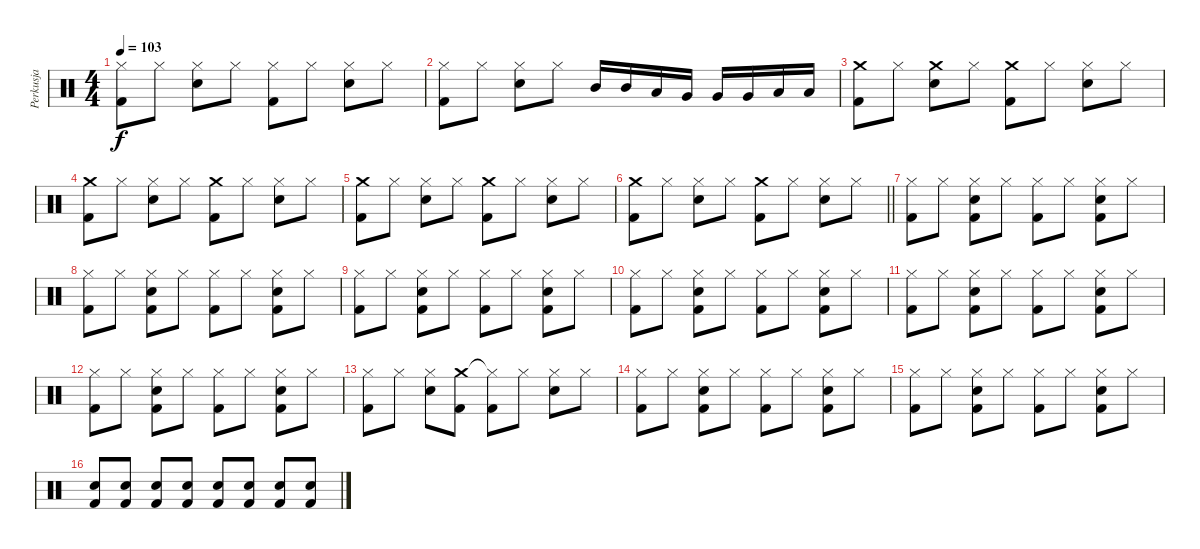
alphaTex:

\track ("Perkusja" "Perkusja") {instrument percussion}
\staff {score}
\articulation defaults
\ts (4 4)
\tempo 103
\clef neutral
\ks c
("Hi-Hat (closed)" "Kick (hit) 2").8{dy f} "Hi-Hat (closed)".8 ("Hi-Hat (closed)" "Snare (hit) 2").8 "Hi-Hat (closed)".8 ("Hi-Hat (closed)" "Kick (hit) 2").8 "Hi-Hat (closed)".8 ("Hi-Hat (closed)" "Snare (hit) 2").8 "Hi-Hat (closed)".8 |
("Hi-Hat (closed)" "Kick (hit) 2").8 "Hi-Hat (closed)".8 ("Hi-Hat (closed)" "Snare (hit) 2").8 "Hi-Hat (closed)".8 "Mid Tom (hit)".16 "Mid Tom (hit)".16 "Low Tom (hit)".16 "Very Low Tom (hit)".16 "Very Low Tom (hit)".16 "Very Low Tom (hit)".16 "Low Floor Tom (hit)".16 "Low Floor Tom (hit)".16 |
("Crash medium (hit)" "Kick (hit) 2").8 "Hi-Hat (closed)".8 ("Crash medium (hit)" "Snare (hit) 2").8 "Hi-Hat (closed)".8 ("Crash medium (hit)" "Kick (hit) 2").8 "Hi-Hat (closed)".8 ("Hi-Hat (closed)" "Snare (hit) 2").8 "Hi-Hat (closed)".8 |
("Crash medium (hit)" "Kick (hit) 2").8 "Hi-Hat (closed)".8 ("Hi-Hat (closed)" "Snare (hit) 2").8 "Hi-Hat (closed)".8 ("Crash medium (hit)" "Kick (hit) 2").8 "Hi-Hat (closed)".8 ("Hi-Hat (closed)" "Snare (hit) 2").8 "Hi-Hat (closed)".8 |
("Crash medium (hit)" "Kick (hit) 2").8 "Hi-Hat (closed)".8 ("Hi-Hat (closed)" "Snare (hit) 2").8 "Hi-Hat (closed)".8 ("Crash medium (hit)" "Kick (hit) 2").8 "Hi-Hat (closed)".8 ("Hi-Hat (closed)" "Snare (hit) 2").8 "Hi-Hat (closed)".8 |
\barLineRight lightlight
("Crash medium (hit)" "Kick (hit) 2").8 "Hi-Hat (closed)".8 ("Hi-Hat (closed)" "Snare (hit) 2").8 "Hi-Hat (closed)".8 ("Crash medium (hit)" "Kick (hit) 2").8 "Hi-Hat (closed)".8 ("Hi-Hat (closed)" "Snare (hit) 2").8 "Hi-Hat (closed)".8 |
("Hi-Hat (closed)" "Kick (hit) 2").8 "Hi-Hat (closed)".8 ("Hi-Hat (closed)" "Snare (hit) 2" "Kick (hit) 2").8 "Hi-Hat (closed)".8 ("Hi-Hat (closed)" "Kick (hit) 2").8 "Hi-Hat (closed)".8 ("Hi-Hat (closed)" "Snare (hit) 2" "Kick (hit) 2").8 "Hi-Hat (closed)".8 |
("Hi-Hat (closed)" "Kick (hit) 2").8 "Hi-Hat (closed)".8 ("Hi-Hat (closed)" "Snare (hit) 2" "Kick (hit) 2").8 "Hi-Hat (closed)".8 ("Hi-Hat (closed)" "Kick (hit) 2").8 "Hi-Hat (closed)".8 ("Hi-Hat (closed)" "Snare (hit) 2" "Kick (hit) 2").8 "Hi-Hat (closed)".8 |
("Hi-Hat (closed)" "Kick (hit) 2").8 "Hi-Hat (closed)".8 ("Hi-Hat (closed)" "Snare (hit) 2" "Kick (hit) 2").8 "Hi-Hat (closed)".8 ("Hi-Hat (closed)" "Kick (hit) 2").8 "Hi-Hat (closed)".8 ("Hi-Hat (closed)" "Snare (hit) 2" "Kick (hit) 2").8 "Hi-Hat (closed)".8 |
("Hi-Hat (closed)" "Kick (hit) 2").8 "Hi-Hat (closed)".8 ("Hi-Hat (closed)" "Snare (hit) 2" "Kick (hit) 2").8 "Hi-Hat (closed)".8 ("Hi-Hat (closed)" "Kick (hit) 2").8 "Hi-Hat (closed)".8 ("Hi-Hat (closed)" "Snare (hit) 2" "Kick (hit) 2").8 "Hi-Hat (closed)".8 |
("Hi-Hat (closed)" "Kick (hit) 2").8 "Hi-Hat (closed)".8 ("Hi-Hat (closed)" "Snare (hit) 2" "Kick (hit) 2").8 "Hi-Hat (closed)".8 ("Hi-Hat (closed)" "Kick (hit) 2").8 "Hi-Hat (closed)".8 ("Hi-Hat (closed)" "Snare (hit) 2" "Kick (hit) 2").8 "Hi-Hat (closed)".8 |
("Hi-Hat (closed)" "Kick (hit) 2").8 "Hi-Hat (closed)".8 ("Hi-Hat (closed)" "Snare (hit) 2" "Kick (hit) 2").8 "Hi-Hat (closed)".8 ("Hi-Hat (closed)" "Kick (hit) 2").8 "Hi-Hat (closed)".8 ("Hi-Hat (closed)" "Snare (hit) 2" "Kick (hit) 2").8 "Hi-Hat (closed)".8 |
("Hi-Hat (closed)" "Kick (hit) 2").8 "Hi-Hat (closed)".8 ("Hi-Hat (closed)" "Snare (hit) 2").8 ("Crash medium (hit)" "Kick (hit) 2").8 ("Hi-Hat (closed)"{t} "Kick (hit) 2").8 "Hi-Hat (closed)".8 ("Hi-Hat (closed)" "Snare (hit) 2").8 "Hi-Hat (closed)".8 |
("Hi-Hat (closed)" "Kick (hit) 2").8 "Hi-Hat (closed)".8 ("Hi-Hat (closed)" "Snare (hit) 2" "Kick (hit) 2").8 "Hi-Hat (closed)".8 ("Hi-Hat (closed)" "Kick (hit) 2").8 "Hi-Hat (closed)".8 ("Hi-Hat (closed)" "Snare (hit) 2" "Kick (hit) 2").8 "Hi-Hat (closed)".8 |
("Hi-Hat (closed)" "Kick (hit) 2").8 "Hi-Hat (closed)".8 ("Hi-Hat (closed)" "Snare (hit) 2" "Kick (hit) 2").8 "Hi-Hat (closed)".8 ("Hi-Hat (closed)" "Kick (hit) 2").8 "Hi-Hat (closed)".8 ("Hi-Hat (closed)" "Snare (hit) 2" "Kick (hit) 2").8 "Hi-Hat (closed)".8 |
("Snare (hit) 2" "Kick (hit) 2").8{volume 4} ("Snare (hit) 2" "Kick (hit) 2").8{volume 13} ("Snare (hit) 2" "Kick (hit) 2").8 ("Snare (hit) 2" "Kick (hit) 2").8 ("Snare (hit) 2" "Kick (hit) 2").8 ("Snare (hit) 2" "Kick (hit) 2").8 ("Snare (hit) 2" "Kick (hit) 2").8 ("Snare (hit) 2" "Kick (hit) 2").8
